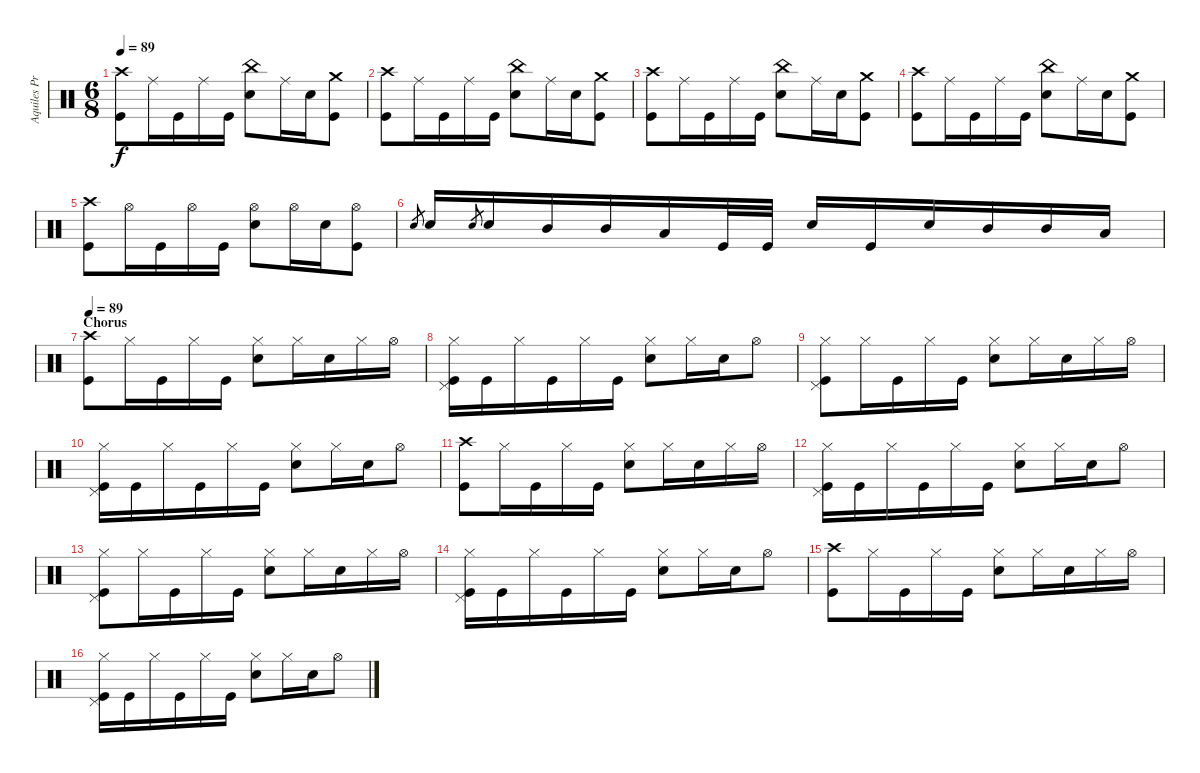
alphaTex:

\track ("Aquiles Priester" "Aquiles Pr") {instrument percussion}
\staff {score}
\articulation defaults
\ts (6 8)
\tempo 89
\clef neutral
\ks c
("Crash high (hit)" "Kick (hit)").8{dy f} "Ride (middle)".16 "Kick (hit)".16 "Ride (middle)".16 "Kick (hit)".16 ("China (hit)" "Electric Snare (hit)").8 "Ride (middle)".16 "Electric Snare (hit)".16 ("Crash medium (hit)" "Kick (hit)").8 |
("Crash high (hit)" "Kick (hit)").8 "Ride (middle)".16 "Kick (hit)".16 "Ride (middle)".16 "Kick (hit)".16 ("China (hit)" "Electric Snare (hit)").8 "Ride (middle)".16 "Electric Snare (hit)".16 ("Crash medium (hit)" "Kick (hit)").8 |
("Crash high (hit)" "Kick (hit)").8 "Ride (middle)".16 "Kick (hit)".16 "Ride (middle)".16 "Kick (hit)".16 ("China (hit)" "Electric Snare (hit)").8 "Ride (middle)".16 "Electric Snare (hit)".16 ("Crash medium (hit)" "Kick (hit)").8 |
("Crash high (hit)" "Kick (hit)").8 "Ride (middle)".16 "Kick (hit)".16 "Ride (middle)".16 "Kick (hit)".16 ("China (hit)" "Electric Snare (hit)").8 "Ride (middle)".16 "Electric Snare (hit)".16 ("Crash medium (hit)" "Kick (hit)").8 |
("Crash high (hit)" "Kick (hit)").8 "Hi-Hat (open)".16 "Kick (hit)".16 "Hi-Hat (open)".16 "Kick (hit)".16 ("Hi-Hat (open)" "Electric Snare (hit)").8 "Hi-Hat (open)".16 "Electric Snare (hit)".16 ("Hi-Hat (open)" "Kick (hit)").8 |
"Electric Snare (hit)".8{gr} "Electric Snare (hit)".16 "Electric Snare (hit)".8{gr} "Electric Snare (hit)".16 "Mid Tom (hit)".16 "Mid Tom (hit)".16 "Low Tom (hit)".16 "Kick (hit)".32 "Kick (hit)".32 "Electric Snare (hit)".16 "Kick (hit)".16 "Electric Snare (hit)".16 "Mid Tom (hit)".16 "Mid Tom (hit)".16 "Low Tom (hit)".16 |
\section ("" "Chorus")
\tempo 89
("Crash high (hit)" "Kick (hit)").8 "Hi-Hat (closed)".16 "Kick (hit)".16 "Hi-Hat (closed)".16 "Kick (hit)".16 ("Hi-Hat (closed)" "Electric Snare (hit)").8 "Hi-Hat (closed)".16 "Electric Snare (hit)".16 "Hi-Hat (closed)".16 "Hi-Hat (open)".16 |
("Hi-Hat (closed)" "Pedal Hi-Hat (hit)" "Kick (hit)").16 "Kick (hit)".16 "Hi-Hat (closed)".16 "Kick (hit)".16 "Hi-Hat (closed)".16 "Kick (hit)".16 ("Hi-Hat (closed)" "Electric Snare (hit)").8 "Hi-Hat (closed)".16 "Electric Snare (hit)".16 "Hi-Hat (open)".8 |
("Hi-Hat (closed)" "Pedal Hi-Hat (hit)" "Kick (hit)").8 "Hi-Hat (closed)".16 "Kick (hit)".16 "Hi-Hat (closed)".16 "Kick (hit)".16 ("Hi-Hat (closed)" "Electric Snare (hit)").8 "Hi-Hat (closed)".16 "Electric Snare (hit)".16 "Hi-Hat (closed)".16 "Hi-Hat (open)".16 |
("Hi-Hat (closed)" "Pedal Hi-Hat (hit)" "Kick (hit)").16 "Kick (hit)".16 "Hi-Hat (closed)".16 "Kick (hit)".16 "Hi-Hat (closed)".16 "Kick (hit)".16 ("Hi-Hat (closed)" "Electric Snare (hit)").8 "Hi-Hat (closed)".16 "Electric Snare (hit)".16 "Hi-Hat (open)".8 |
("Crash high (hit)" "Kick (hit)").8 "Hi-Hat (closed)".16 "Kick (hit)".16 "Hi-Hat (closed)".16 "Kick (hit)".16 ("Hi-Hat (closed)" "Electric Snare (hit)").8 "Hi-Hat (closed)".16 "Electric Snare (hit)".16 "Hi-Hat (closed)".16 "Hi-Hat (open)".16 |
("Hi-Hat (closed)" "Pedal Hi-Hat (hit)" "Kick (hit)").16 "Kick (hit)".16 "Hi-Hat (closed)".16 "Kick (hit)".16 "Hi-Hat (closed)".16 "Kick (hit)".16 ("Hi-Hat (closed)" "Electric Snare (hit)").8 "Hi-Hat (closed)".16 "Electric Snare (hit)".16 "Hi-Hat (open)".8 |
("Hi-Hat (closed)" "Pedal Hi-Hat (hit)" "Kick (hit)").8 "Hi-Hat (closed)".16 "Kick (hit)".16 "Hi-Hat (closed)".16 "Kick (hit)".16 ("Hi-Hat (closed)" "Electric Snare (hit)").8 "Hi-Hat (closed)".16 "Electric Snare (hit)".16 "Hi-Hat (closed)".16 "Hi-Hat (open)".16 |
("Hi-Hat (closed)" "Pedal Hi-Hat (hit)" "Kick (hit)").16 "Kick (hit)".16 "Hi-Hat (closed)".16 "Kick (hit)".16 "Hi-Hat (closed)".16 "Kick (hit)".16 ("Hi-Hat (closed)" "Electric Snare (hit)").8 "Hi-Hat (closed)".16 "Electric Snare (hit)".16 "Hi-Hat (open)".8 |
("Crash high (hit)" "Kick (hit)").8 "Hi-Hat (closed)".16 "Kick (hit)".16 "Hi-Hat (closed)".16 "Kick (hit)".16 ("Hi-Hat (closed)" "Electric Snare (hit)").8 "Hi-Hat (closed)".16 "Electric Snare (hit)".16 "Hi-Hat (closed)".16 "Hi-Hat (open)".16 |
("Hi-Hat (closed)" "Pedal Hi-Hat (hit)" "Kick (hit)").16 "Kick (hit)".16 "Hi-Hat (closed)".16 "Kick (hit)".16 "Hi-Hat (closed)".16 "Kick (hit)".16 ("Hi-Hat (closed)" "Electric Snare (hit)").8 "Hi-Hat (closed)".16 "Electric Snare (hit)".16 "Hi-Hat (open)".8
